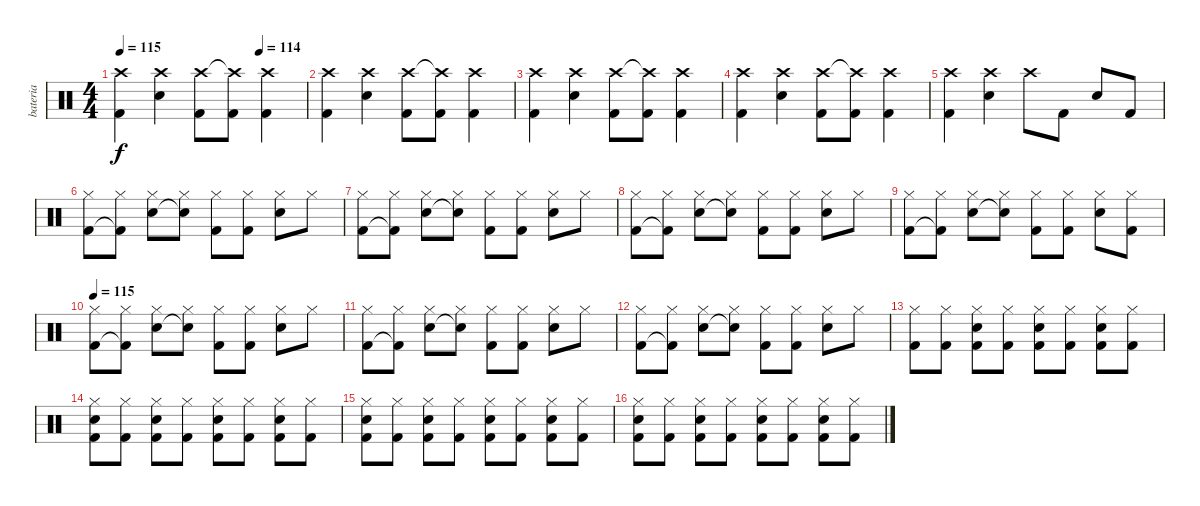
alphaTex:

\track ("bateria" "bateria") {instrument percussion}
\staff {score}
\articulation defaults
\ts (4 4)
\tempo 115
\tempo (114 0.75)
\clef neutral
\ks c
("Crash high (hit)" "Kick (hit) 2").4{dy f} ("Crash high (hit)" "Snare (hit) 2").4 ("Crash high (hit)" "Kick (hit) 2").8 ("Crash high (hit)"{t} "Kick (hit) 2").8 ("Crash high (hit)" "Kick (hit) 2").4 |
("Crash high (hit)" "Kick (hit) 2").4 ("Crash high (hit)" "Snare (hit) 2").4 ("Crash high (hit)" "Kick (hit) 2").8 ("Crash high (hit)"{t} "Kick (hit) 2").8 ("Crash high (hit)" "Kick (hit) 2").4 |
("Crash high (hit)" "Kick (hit) 2").4 ("Crash high (hit)" "Snare (hit) 2").4 ("Crash high (hit)" "Kick (hit) 2").8 ("Crash high (hit)"{t} "Kick (hit) 2").8 ("Crash high (hit)" "Kick (hit) 2").4 |
("Crash high (hit)" "Kick (hit) 2").4 ("Crash high (hit)" "Snare (hit) 2").4 ("Crash high (hit)" "Kick (hit) 2").8 ("Crash high (hit)"{t} "Kick (hit) 2").8 ("Crash high (hit)" "Kick (hit) 2").4 |
("Crash high (hit)" "Kick (hit) 2").4 ("Crash high (hit)" "Snare (hit) 2").4 "Crash high (hit)".8 "Kick (hit) 2".8 "Snare (hit) 2".8 "Kick (hit) 2".8 |
("Hi-Hat (closed)" "Kick (hit) 2").8 ("Hi-Hat (closed)" "Kick (hit) 2"{t}).8 ("Hi-Hat (closed)" "Snare (hit) 2").8 ("Hi-Hat (closed)" "Snare (hit) 2"{t}).8 ("Hi-Hat (closed)" "Kick (hit) 2").8 ("Hi-Hat (closed)" "Kick (hit) 2").8 ("Hi-Hat (closed)" "Snare (hit) 2").8 "Hi-Hat (closed)".8 |
("Hi-Hat (closed)" "Kick (hit) 2").8 ("Hi-Hat (closed)" "Kick (hit) 2"{t}).8 ("Hi-Hat (closed)" "Snare (hit) 2").8 ("Hi-Hat (closed)" "Snare (hit) 2"{t}).8 ("Hi-Hat (closed)" "Kick (hit) 2").8 ("Hi-Hat (closed)" "Kick (hit) 2").8 ("Hi-Hat (closed)" "Snare (hit) 2").8 "Hi-Hat (closed)".8 |
("Hi-Hat (closed)" "Kick (hit) 2").8 ("Hi-Hat (closed)" "Kick (hit) 2"{t}).8 ("Hi-Hat (closed)" "Snare (hit) 2").8 ("Hi-Hat (closed)" "Snare (hit) 2"{t}).8 ("Hi-Hat (closed)" "Kick (hit) 2").8 ("Hi-Hat (closed)" "Kick (hit) 2").8 ("Hi-Hat (closed)" "Snare (hit) 2").8 "Hi-Hat (closed)".8 |
("Hi-Hat (closed)" "Kick (hit) 2").8 ("Hi-Hat (closed)" "Kick (hit) 2"{t}).8 ("Hi-Hat (closed)" "Snare (hit) 2").8 ("Hi-Hat (closed)" "Snare (hit) 2"{t}).8 ("Hi-Hat (closed)" "Kick (hit) 2").8 ("Hi-Hat (closed)" "Kick (hit) 2").8 ("Hi-Hat (closed)" "Snare (hit) 2").8 ("Hi-Hat (closed)" "Kick (hit) 2").8 |
\tempo 115
("Hi-Hat (closed)" "Kick (hit) 2").8 ("Hi-Hat (closed)" "Kick (hit) 2"{t}).8 ("Hi-Hat (closed)" "Snare (hit) 2").8 ("Hi-Hat (closed)" "Snare (hit) 2"{t}).8 ("Hi-Hat (closed)" "Kick (hit) 2").8 ("Hi-Hat (closed)" "Kick (hit) 2").8 ("Hi-Hat (closed)" "Snare (hit) 2").8 "Hi-Hat (closed)".8 |
("Hi-Hat (closed)" "Kick (hit) 2").8 ("Hi-Hat (closed)" "Kick (hit) 2"{t}).8 ("Hi-Hat (closed)" "Snare (hit) 2").8 ("Hi-Hat (closed)" "Snare (hit) 2"{t}).8 ("Hi-Hat (closed)" "Kick (hit) 2").8 ("Hi-Hat (closed)" "Kick (hit) 2").8 ("Hi-Hat (closed)" "Snare (hit) 2").8 "Hi-Hat (closed)".8 |
("Hi-Hat (closed)" "Kick (hit) 2").8 ("Hi-Hat (closed)" "Kick (hit) 2"{t}).8 ("Hi-Hat (closed)" "Snare (hit) 2").8 ("Hi-Hat (closed)" "Snare (hit) 2"{t}).8 ("Hi-Hat (closed)" "Kick (hit) 2").8 ("Hi-Hat (closed)" "Kick (hit) 2").8 ("Hi-Hat (closed)" "Snare (hit) 2").8 "Hi-Hat (closed)".8 |
("Hi-Hat (closed)" "Kick (hit) 2").8 ("Hi-Hat (closed)" "Kick (hit) 2").8 ("Hi-Hat (closed)" "Snare (hit) 2" "Kick (hit) 2").8 ("Hi-Hat (closed)" "Kick (hit) 2").8 ("Hi-Hat (closed)" "Snare (hit) 2" "Kick (hit) 2").8 ("Hi-Hat (closed)" "Kick (hit) 2").8 ("Hi-Hat (closed)" "Snare (hit) 2" "Kick (hit) 2").8 ("Hi-Hat (closed)" "Kick (hit) 2").8 |
("Hi-Hat (closed)" "Snare (hit) 2" "Kick (hit) 2").8 ("Hi-Hat (closed)" "Kick (hit) 2").8 ("Hi-Hat (closed)" "Snare (hit) 2" "Kick (hit) 2").8 ("Hi-Hat (closed)" "Kick (hit) 2").8 ("Hi-Hat (closed)" "Snare (hit) 2" "Kick (hit) 2").8 ("Hi-Hat (closed)" "Kick (hit) 2").8 ("Hi-Hat (closed)" "Snare (hit) 2" "Kick (hit) 2").8 ("Hi-Hat (closed)" "Kick (hit) 2").8 |
("Hi-Hat (closed)" "Snare (hit) 2" "Kick (hit) 2").8 ("Hi-Hat (closed)" "Kick (hit) 2").8 ("Hi-Hat (closed)" "Snare (hit) 2" "Kick (hit) 2").8 ("Hi-Hat (closed)" "Kick (hit) 2").8 ("Hi-Hat (closed)" "Snare (hit) 2" "Kick (hit) 2").8 ("Hi-Hat (closed)" "Kick (hit) 2").8 ("Hi-Hat (closed)" "Snare (hit) 2" "Kick (hit) 2").8 ("Hi-Hat (closed)" "Kick (hit) 2").8 |
("Hi-Hat (closed)" "Snare (hit) 2" "Kick (hit) 2").8 ("Hi-Hat (closed)" "Kick (hit) 2").8 ("Hi-Hat (closed)" "Snare (hit) 2" "Kick (hit) 2").8 ("Hi-Hat (closed)" "Kick (hit) 2").8 ("Hi-Hat (closed)" "Snare (hit) 2" "Kick (hit) 2").8 ("Hi-Hat (closed)" "Kick (hit) 2").8 ("Hi-Hat (closed)" "Snare (hit) 2" "Kick (hit) 2").8 ("Hi-Hat (closed)" "Kick (hit) 2").8
